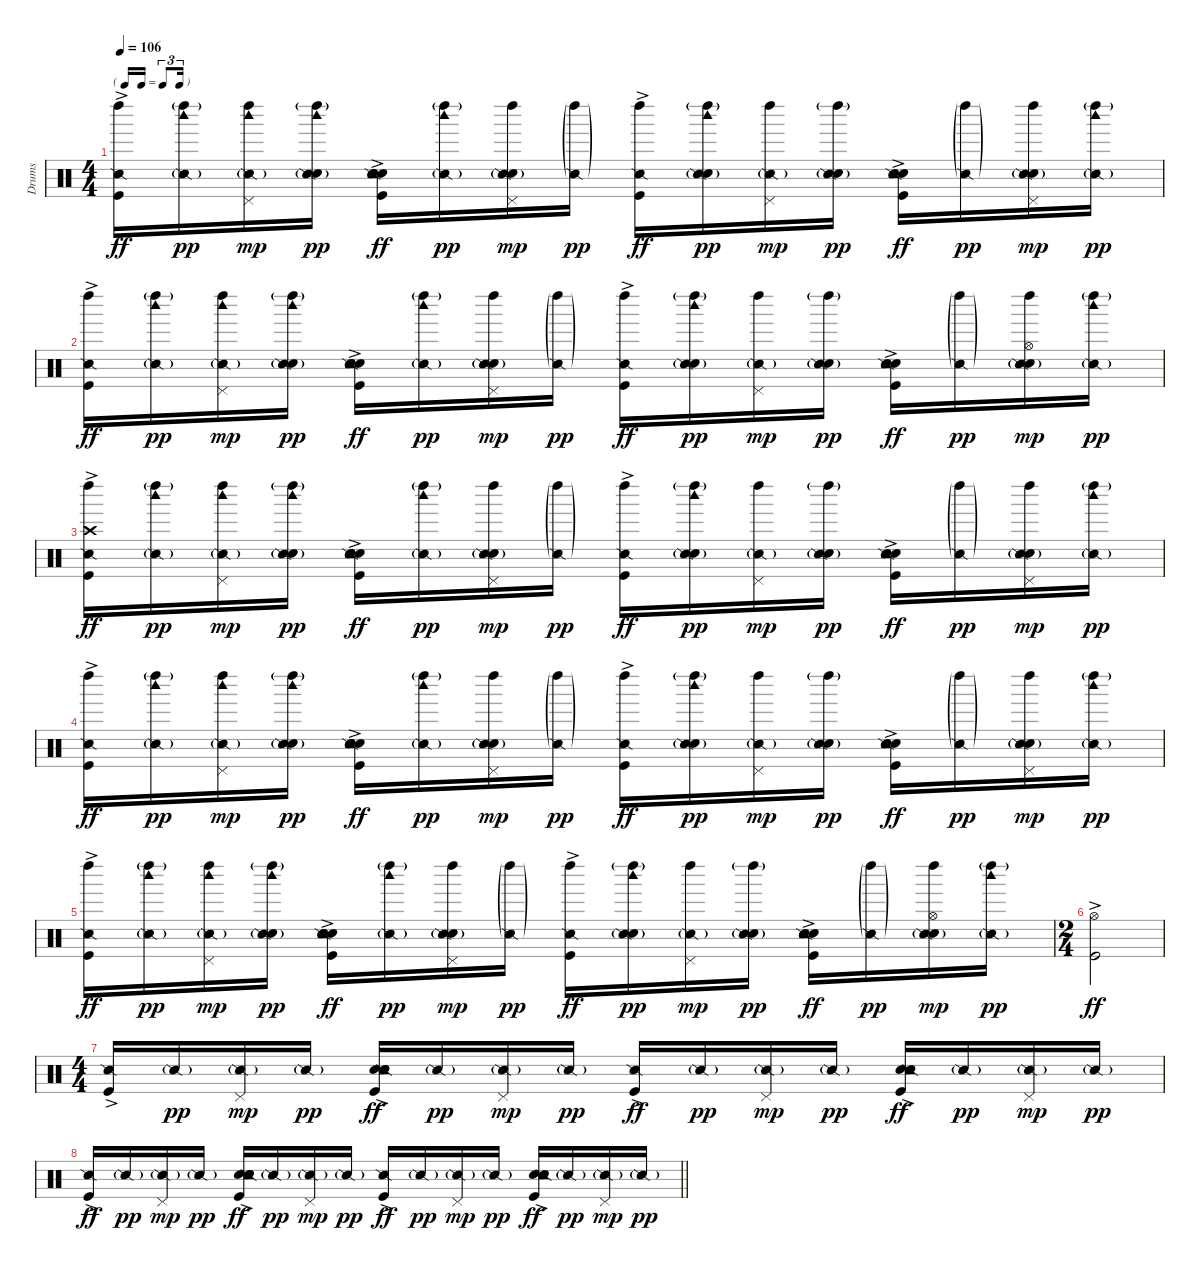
\track ("Drums" "Drums") {instrument percussion}
\staff {score}
\articulation defaults
\ts (4 4)
\tf triplet16th
\tempo 106
\clef neutral
\ks c
("Kick (hit)"{ac} "Left Maraca (hit)" "Snare (side stick) 2").16{dy ff} ("Left Maraca (hit)"{g} "Woodblock high (hit)" "Snare (side stick) 2"{g}).16{dy pp} ("Left Maraca (hit)" "Pedal Hi-Hat (hit)" "Woodblock high (hit)" "Snare (side stick) 2"{g}).16{dy mp} ("Hand Clap (hit)" "Left Maraca (hit)"{g} "Woodblock high (hit)" "Snare (side stick) 2"{g}).16{dy pp} ("Kick (hit)"{ac} "Hand Clap (hit)" "Snare (hit) 2"{ac} "Electric Snare (hit)" "Tambourine (hit)" "Snare (side stick) 2").16{dy ff} ("Left Maraca (hit)"{g} "Woodblock high (hit)" "Snare (side stick) 2"{g}).16{dy pp} ("Hand Clap (hit)" "Left Maraca (hit)" "Pedal Hi-Hat (hit)" "Snare (side stick) 2"{g}).16{dy mp} ("Left Maraca (hit)"{g} "Snare (side stick) 2"{g}).16{dy pp} ("Kick (hit)"{ac} "Left Maraca (hit)" "Snare (side stick) 2").16{dy ff} ("Hand Clap (hit)" "Left Maraca (hit)"{g} "Woodblock high (hit)" "Snare (side stick) 2"{g}).16{dy pp} ("Left Maraca (hit)" "Pedal Hi-Hat (hit)" "Snare (side stick) 2"{g}).16{dy mp} ("Hand Clap (hit)" "Left Maraca (hit)"{g} "Snare (side stick) 2"{g}).16{dy pp} ("Kick (hit)"{ac} "Snare (hit) 2"{ac} "Electric Snare (hit)" "Tambourine (hit)" "Snare (side stick) 2").16{dy ff} ("Left Maraca (hit)"{g} "Snare (side stick) 2"{g}).16{dy pp} ("Hand Clap (hit)" "Left Maraca (hit)" "Pedal Hi-Hat (hit)" "Snare (side stick) 2"{g}).16{dy mp} ("Left Maraca (hit)"{g} "Woodblock high (hit)" "Snare (side stick) 2"{g}).16{dy pp} |
("Kick (hit)"{ac} "Left Maraca (hit)" "Snare (side stick) 2").16{dy ff} ("Left Maraca (hit)"{g} "Woodblock high (hit)" "Snare (side stick) 2"{g}).16{dy pp} ("Left Maraca (hit)" "Pedal Hi-Hat (hit)" "Woodblock high (hit)" "Snare (side stick) 2"{g}).16{dy mp} ("Hand Clap (hit)" "Left Maraca (hit)"{g} "Woodblock high (hit)" "Snare (side stick) 2"{g}).16{dy pp} ("Kick (hit)"{ac} "Hand Clap (hit)" "Snare (hit) 2"{ac} "Electric Snare (hit)" "Tambourine (hit)" "Snare (side stick) 2").16{dy ff} ("Left Maraca (hit)"{g} "Woodblock high (hit)" "Snare (side stick) 2"{g}).16{dy pp} ("Hand Clap (hit)" "Left Maraca (hit)" "Pedal Hi-Hat (hit)" "Snare (side stick) 2"{g}).16{dy mp} ("Left Maraca (hit)"{g} "Snare (side stick) 2"{g}).16{dy pp} ("Kick (hit)"{ac} "Left Maraca (hit)" "Snare (side stick) 2").16{dy ff} ("Hand Clap (hit)" "Left Maraca (hit)"{g} "Woodblock high (hit)" "Snare (side stick) 2"{g}).16{dy pp} ("Left Maraca (hit)" "Pedal Hi-Hat (hit)" "Snare (side stick) 2"{g}).16{dy mp} ("Hand Clap (hit)" "Left Maraca (hit)"{g} "Snare (side stick) 2"{g}).16{dy pp} ("Kick (hit)"{ac} "Snare (hit) 2"{ac} "Electric Snare (hit)" "Tambourine (hit)" "Snare (side stick) 2").16{dy ff} ("Left Maraca (hit)"{g} "Snare (side stick) 2"{g}).16{dy pp} ("Hand Clap (hit)" "Left Maraca (hit)" "Hi-Hat (open)" "Snare (side stick) 2"{g}).16{dy mp} ("Left Maraca (hit)"{g} "Woodblock high (hit)" "Snare (side stick) 2"{g}).16{dy pp} |
("Kick (hit)"{ac} "Left Maraca (hit)" "Crash high (hit)" "Snare (side stick) 2").16{dy ff} ("Left Maraca (hit)"{g} "Woodblock high (hit)" "Snare (side stick) 2"{g}).16{dy pp} ("Left Maraca (hit)" "Pedal Hi-Hat (hit)" "Woodblock high (hit)" "Snare (side stick) 2"{g}).16{dy mp} ("Hand Clap (hit)" "Left Maraca (hit)"{g} "Woodblock high (hit)" "Snare (side stick) 2"{g}).16{dy pp} ("Kick (hit)"{ac} "Hand Clap (hit)" "Snare (hit) 2"{ac} "Electric Snare (hit)" "Tambourine (hit)" "Snare (side stick) 2").16{dy ff} ("Left Maraca (hit)"{g} "Woodblock high (hit)" "Snare (side stick) 2"{g}).16{dy pp} ("Hand Clap (hit)" "Left Maraca (hit)" "Pedal Hi-Hat (hit)" "Snare (side stick) 2"{g}).16{dy mp} ("Left Maraca (hit)"{g} "Snare (side stick) 2"{g}).16{dy pp} ("Kick (hit)"{ac} "Left Maraca (hit)" "Snare (side stick) 2").16{dy ff} ("Hand Clap (hit)" "Left Maraca (hit)"{g} "Woodblock high (hit)" "Snare (side stick) 2"{g}).16{dy pp} ("Left Maraca (hit)" "Pedal Hi-Hat (hit)" "Snare (side stick) 2"{g}).16{dy mp} ("Hand Clap (hit)" "Left Maraca (hit)"{g} "Snare (side stick) 2"{g}).16{dy pp} ("Kick (hit)"{ac} "Snare (hit) 2"{ac} "Electric Snare (hit)" "Tambourine (hit)" "Snare (side stick) 2").16{dy ff} ("Left Maraca (hit)"{g} "Snare (side stick) 2"{g}).16{dy pp} ("Hand Clap (hit)" "Left Maraca (hit)" "Pedal Hi-Hat (hit)" "Snare (side stick) 2"{g}).16{dy mp} ("Left Maraca (hit)"{g} "Woodblock high (hit)" "Snare (side stick) 2"{g}).16{dy pp} |
("Kick (hit)"{ac} "Left Maraca (hit)" "Snare (side stick) 2").16{dy ff} ("Left Maraca (hit)"{g} "Woodblock high (hit)" "Snare (side stick) 2"{g}).16{dy pp} ("Left Maraca (hit)" "Pedal Hi-Hat (hit)" "Woodblock high (hit)" "Snare (side stick) 2"{g}).16{dy mp} ("Hand Clap (hit)" "Left Maraca (hit)"{g} "Woodblock high (hit)" "Snare (side stick) 2"{g}).16{dy pp} ("Kick (hit)"{ac} "Hand Clap (hit)" "Snare (hit) 2"{ac} "Electric Snare (hit)" "Tambourine (hit)" "Snare (side stick) 2").16{dy ff} ("Left Maraca (hit)"{g} "Woodblock high (hit)" "Snare (side stick) 2"{g}).16{dy pp} ("Hand Clap (hit)" "Left Maraca (hit)" "Pedal Hi-Hat (hit)" "Snare (side stick) 2"{g}).16{dy mp} ("Left Maraca (hit)"{g} "Snare (side stick) 2"{g}).16{dy pp} ("Kick (hit)"{ac} "Left Maraca (hit)" "Snare (side stick) 2").16{dy ff} ("Hand Clap (hit)" "Left Maraca (hit)"{g} "Woodblock high (hit)" "Snare (side stick) 2"{g}).16{dy pp} ("Left Maraca (hit)" "Pedal Hi-Hat (hit)" "Snare (side stick) 2"{g}).16{dy mp} ("Hand Clap (hit)" "Left Maraca (hit)"{g} "Snare (side stick) 2"{g}).16{dy pp} ("Kick (hit)"{ac} "Snare (hit) 2"{ac} "Electric Snare (hit)" "Tambourine (hit)" "Snare (side stick) 2").16{dy ff} ("Left Maraca (hit)"{g} "Snare (side stick) 2"{g}).16{dy pp} ("Hand Clap (hit)" "Left Maraca (hit)" "Pedal Hi-Hat (hit)" "Snare (side stick) 2"{g}).16{dy mp} ("Left Maraca (hit)"{g} "Woodblock high (hit)" "Snare (side stick) 2"{g}).16{dy pp} |
("Kick (hit)"{ac} "Left Maraca (hit)" "Snare (side stick) 2").16{dy ff} ("Left Maraca (hit)"{g} "Woodblock high (hit)" "Snare (side stick) 2"{g}).16{dy pp} ("Left Maraca (hit)" "Pedal Hi-Hat (hit)" "Woodblock high (hit)" "Snare (side stick) 2"{g}).16{dy mp} ("Hand Clap (hit)" "Left Maraca (hit)"{g} "Woodblock high (hit)" "Snare (side stick) 2"{g}).16{dy pp} ("Kick (hit)"{ac} "Hand Clap (hit)" "Snare (hit) 2"{ac} "Electric Snare (hit)" "Tambourine (hit)" "Snare (side stick) 2").16{dy ff} ("Left Maraca (hit)"{g} "Woodblock high (hit)" "Snare (side stick) 2"{g}).16{dy pp} ("Hand Clap (hit)" "Left Maraca (hit)" "Pedal Hi-Hat (hit)" "Snare (side stick) 2"{g}).16{dy mp} ("Left Maraca (hit)"{g} "Snare (side stick) 2"{g}).16{dy pp} ("Kick (hit)"{ac} "Left Maraca (hit)" "Snare (side stick) 2").16{dy ff} ("Hand Clap (hit)" "Left Maraca (hit)"{g} "Woodblock high (hit)" "Snare (side stick) 2"{g}).16{dy pp} ("Left Maraca (hit)" "Pedal Hi-Hat (hit)" "Snare (side stick) 2"{g}).16{dy mp} ("Hand Clap (hit)" "Left Maraca (hit)"{g} "Snare (side stick) 2"{g}).16{dy pp} ("Kick (hit)"{ac} "Snare (hit) 2"{ac} "Electric Snare (hit)" "Tambourine (hit)" "Snare (side stick) 2").16{dy ff} ("Left Maraca (hit)"{g} "Snare (side stick) 2"{g}).16{dy pp} ("Hand Clap (hit)" "Left Maraca (hit)" "Hi-Hat (open)" "Snare (side stick) 2"{g}).16{dy mp} ("Left Maraca (hit)"{g} "Woodblock high (hit)" "Snare (side stick) 2"{g}).16{dy pp} |
\ts (2 4)
("Kick (hit)"{ac} "Hi-Hat (open)").2{dy ff} |
\ts (4 4)
("Kick (hit)"{ac} "Snare (side stick) 2").16 "Snare (side stick) 2"{g}.16{dy pp} ("Pedal Hi-Hat (hit)" "Snare (side stick) 2"{g}).16{dy mp} "Snare (side stick) 2"{g}.16{dy pp} ("Kick (hit)"{ac} "Hand Clap (hit)" "Snare (hit) 2"{ac} "Electric Snare (hit)" "Tambourine (hit)" "Snare (side stick) 2").16{dy ff} "Snare (side stick) 2"{g}.16{dy pp} ("Pedal Hi-Hat (hit)" "Snare (side stick) 2"{g}).16{dy mp} "Snare (side stick) 2"{g}.16{dy pp} ("Kick (hit)"{ac} "Snare (side stick) 2").16{dy ff} "Snare (side stick) 2"{g}.16{dy pp} ("Pedal Hi-Hat (hit)" "Snare (side stick) 2"{g}).16{dy mp} "Snare (side stick) 2"{g}.16{dy pp} ("Kick (hit)"{ac} "Snare (hit) 2"{ac} "Electric Snare (hit)" "Tambourine (hit)" "Snare (side stick) 2").16{dy ff} "Snare (side stick) 2"{g}.16{dy pp} ("Pedal Hi-Hat (hit)" "Snare (side stick) 2"{g}).16{dy mp} "Snare (side stick) 2"{g}.16{dy pp} |
\barLineRight lightlight
("Kick (hit)"{ac} "Snare (side stick) 2").16{dy ff} "Snare (side stick) 2"{g}.16{dy pp} ("Pedal Hi-Hat (hit)" "Snare (side stick) 2"{g}).16{dy mp} "Snare (side stick) 2"{g}.16{dy pp} ("Kick (hit)"{ac} "Hand Clap (hit)" "Snare (hit) 2"{ac} "Electric Snare (hit)" "Tambourine (hit)" "Snare (side stick) 2").16{dy ff} "Snare (side stick) 2"{g}.16{dy pp} ("Pedal Hi-Hat (hit)" "Snare (side stick) 2"{g}).16{dy mp} "Snare (side stick) 2"{g}.16{dy pp} ("Kick (hit)"{ac} "Snare (side stick) 2").16{dy ff} "Snare (side stick) 2"{g}.16{dy pp} ("Pedal Hi-Hat (hit)" "Snare (side stick) 2"{g}).16{dy mp} "Snare (side stick) 2"{g}.16{dy pp} ("Kick (hit)"{ac} "Snare (hit) 2"{ac} "Electric Snare (hit)" "Tambourine (hit)" "Snare (side stick) 2").16{dy ff} "Snare (side stick) 2"{g}.16{dy pp} ("Pedal Hi-Hat (hit)" "Snare (side stick) 2"{g}).16{dy mp} "Snare (side stick) 2"{g}.16{dy pp}
